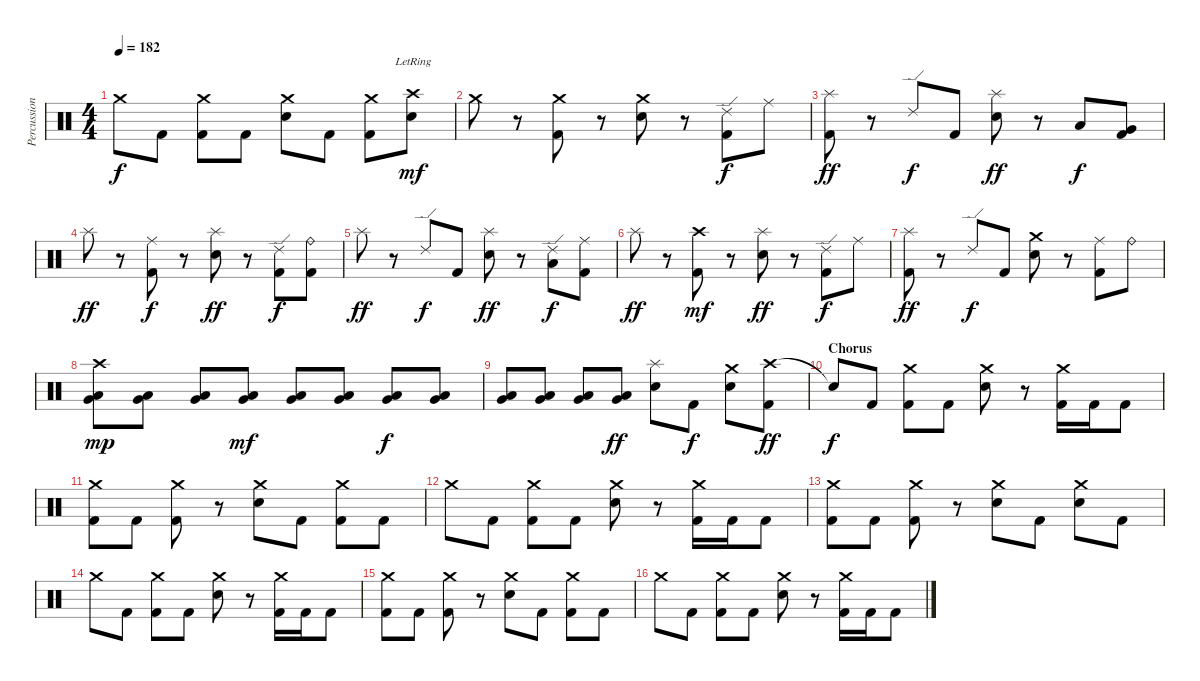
\track ("Percussions" "Percussion") {instrument percussion}
\staff {score}
\articulation defaults
\ts (4 4)
\tempo 182
\clef neutral
\ks c "Crash medium (hit)".8{dy f} "Kick (hit) 2".8
("Crash medium (hit)" "Kick (hit) 2").8 "Kick (hit) 2".8 ("Crash medium (hit)" "Electric Snare (hit)").8 "Kick (hit) 2".8 ("Crash medium (hit)" "Kick (hit) 2").8 ("Crash high (hit)"{lr} "Electric Snare (hit)").8{dy mf} |
"Crash medium (hit)".8 r.8 ("Crash medium (hit)" "Kick (hit) 2").8 r.8 ("Crash medium (hit)" "Electric Snare (hit)").8 r.8 ("Ride (edge) 2" "Kick (hit) 2").8{dy f} "Ride (middle)".8 |
("Splash (hit)" "Kick (hit) 2").8{dy ff} r.8 "Ride (edge) 2".8{dy f} "Kick (hit) 2".8 ("Splash (hit)" "Electric Snare (hit)").8{dy ff} r.8 "Low Tom (hit)".8{dy f} ("Very Low Tom (hit)" "Kick (hit) 2").8 |
"Splash (hit)".8{dy ff} r.8 ("Ride (middle)" "Kick (hit) 2").8{dy f} r.8 ("Splash (hit)" "Electric Snare (hit)").8{dy ff} r.8 ("Ride (edge) 2" "Kick (hit) 2").8{dy f} ("Ride (bell)" "Kick (hit) 2").8 |
"Splash (hit)".8{dy ff} r.8 "Ride (edge) 2".8{dy f} "Kick (hit) 2".8 ("Splash (hit)" "Electric Snare (hit)").8{dy ff} r.8 ("Ride (edge) 2" "Low Tom (hit)").8{dy f} ("Ride (middle)" "Kick (hit) 2").8 |
"Splash (hit)".8{dy ff} r.8 ("Crash high (hit)" "Kick (hit) 2").8{dy mf} r.8 ("Splash (hit)" "Electric Snare (hit)").8{dy ff} r.8 ("Ride (edge) 2" "Kick (hit) 2").8{dy f} "Ride (middle)".8 |
("Splash (hit)" "Kick (hit) 2").8{dy ff} r.8 "Ride (edge) 2".8{dy f} "Kick (hit) 2".8 ("Crash medium (hit)" "Electric Snare (hit)").8 r.8 ("Ride (middle)" "Kick (hit) 2").8 "Ride (bell)".8 |
("Crash high (hit)" "Very Low Tom (hit)" "Low Tom (hit)").8{dy mp} ("Very Low Tom (hit)" "Low Tom (hit)").8 ("Very Low Tom (hit)" "Low Tom (hit)").8 ("Very Low Tom (hit)" "Low Tom (hit)").8{dy mf} ("Very Low Tom (hit)" "Low Tom (hit)").8 ("Very Low Tom (hit)" "Low Tom (hit)").8 ("Very Low Tom (hit)" "Low Tom (hit)").8{dy f} ("Very Low Tom (hit)" "Low Tom (hit)").8 |
("Very Low Tom (hit)" "Low Tom (hit)").8 ("Very Low Tom (hit)" "Low Tom (hit)").8 ("Very Low Tom (hit)" "Low Tom (hit)").8 ("Very Low Tom (hit)" "Low Tom (hit)").8{dy ff} ("Splash (hit)" "Electric Snare (hit)").8 "Kick (hit) 2".8{dy f} ("Crash medium (hit)" "Electric Snare (hit)").8 ("Crash high (hit)" "Kick (hit) 2").8{dy ff} |
\section ("" "Chorus")
"Snare (hit)"{t}.8{dy f} "Kick (hit) 2".8 ("Crash medium (hit)" "Kick (hit) 2").8 "Kick (hit) 2".8 ("Crash medium (hit)" "Electric Snare (hit)").8 r.8 ("Crash medium (hit)" "Kick (hit) 2").16 "Kick (hit) 2".16 "Kick (hit) 2".8 |
("Crash medium (hit)" "Kick (hit) 2").8 "Kick (hit) 2".8 ("Crash medium (hit)" "Kick (hit) 2").8 r.8 ("Crash medium (hit)" "Electric Snare (hit)").8 "Kick (hit) 2".8 ("Crash medium (hit)" "Kick (hit) 2").8 "Kick (hit) 2".8 |
"Crash medium (hit)".8 "Kick (hit) 2".8 ("Crash medium (hit)" "Kick (hit) 2").8 "Kick (hit) 2".8 ("Crash medium (hit)" "Electric Snare (hit)").8 r.8 ("Crash medium (hit)" "Kick (hit) 2").16 "Kick (hit) 2".16 "Kick (hit) 2".8 |
("Crash medium (hit)" "Kick (hit) 2").8 "Kick (hit) 2".8 ("Crash medium (hit)" "Kick (hit) 2").8 r.8 ("Crash medium (hit)" "Electric Snare (hit)").8 "Kick (hit) 2".8 ("Crash medium (hit)" "Electric Snare (hit)").8 "Kick (hit) 2".8 |
"Crash medium (hit)".8 "Kick (hit) 2".8 ("Crash medium (hit)" "Kick (hit) 2").8 "Kick (hit) 2".8 ("Crash medium (hit)" "Electric Snare (hit)").8 r.8 ("Crash medium (hit)" "Kick (hit) 2").16 "Kick (hit) 2".16 "Kick (hit) 2".8 |
("Crash medium (hit)" "Kick (hit) 2").8 "Kick (hit) 2".8 ("Crash medium (hit)" "Kick (hit) 2").8 r.8 ("Crash medium (hit)" "Electric Snare (hit)").8 "Kick (hit) 2".8 ("Crash medium (hit)" "Kick (hit) 2").8 "Kick (hit) 2".8 |
"Crash medium (hit)".8 "Kick (hit) 2".8 ("Crash medium (hit)" "Kick (hit) 2").8 "Kick (hit) 2".8 ("Crash medium (hit)" "Electric Snare (hit)").8 r.8 ("Crash medium (hit)" "Kick (hit) 2").16 "Kick (hit) 2".16 "Kick (hit) 2".8
